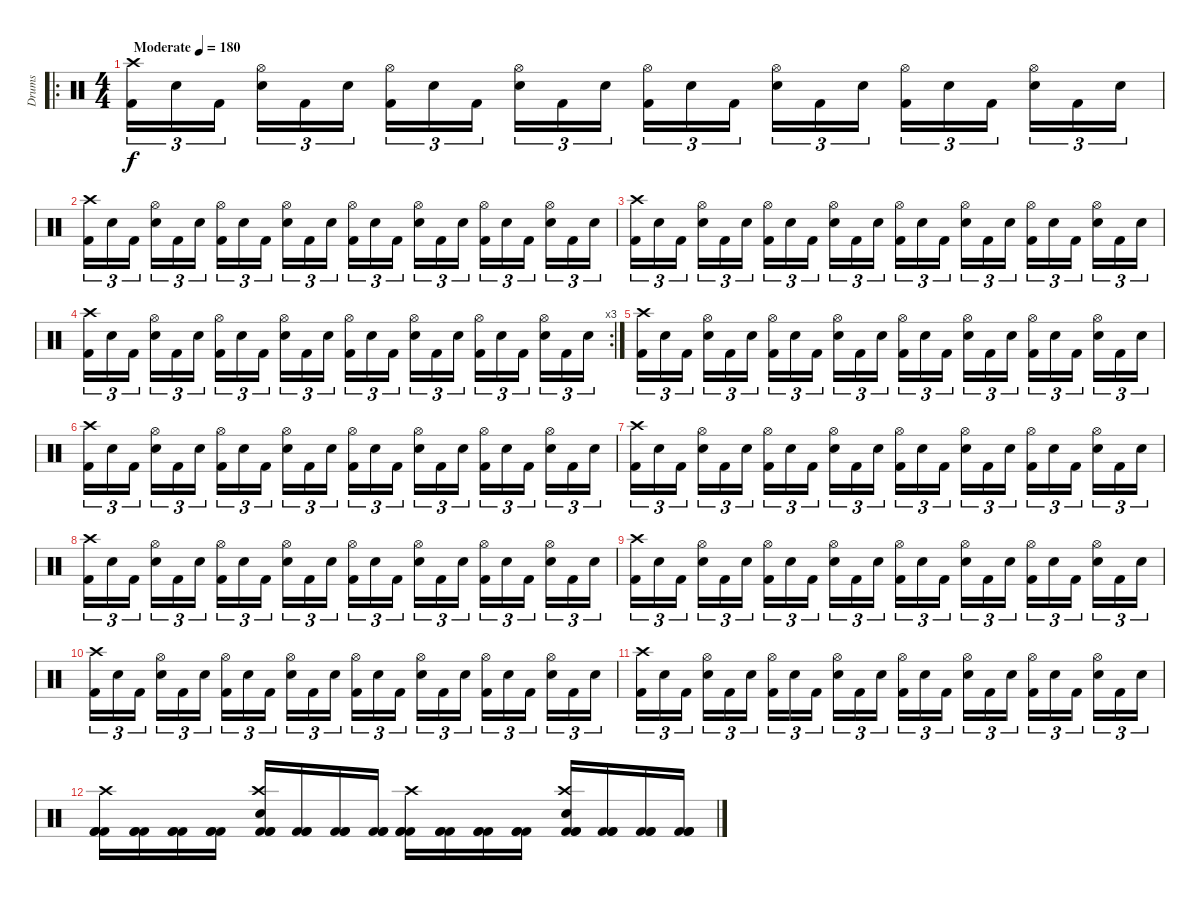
\track ("Drums" "Drums") {instrument percussion}
\staff {score}
\articulation defaults
\ro
\ts (4 4)
\tempo (180 "Moderate")
\clef neutral
\ks c
("Kick (hit) 2" "Crash high (hit)").16{tu (3 2) dy f} "Snare (hit) 2".16{tu (3 2)} "Kick (hit) 2".16{tu (3 2) beam splitsecondary} ("Snare (hit) 2" "Hi-Hat (open)").16{tu (3 2)} "Kick (hit) 2".16{tu (3 2)} "Snare (hit) 2".16{tu (3 2)} ("Kick (hit) 2" "Hi-Hat (open)").16{tu (3 2)} "Snare (hit) 2".16{tu (3 2)} "Kick (hit) 2".16{tu (3 2) beam splitsecondary} ("Snare (hit) 2" "Hi-Hat (open)").16{tu (3 2)} "Kick (hit) 2".16{tu (3 2)} "Snare (hit) 2".16{tu (3 2)} ("Kick (hit) 2" "Hi-Hat (open)").16{tu (3 2)} "Snare (hit) 2".16{tu (3 2)} "Kick (hit) 2".16{tu (3 2) beam splitsecondary} ("Snare (hit) 2" "Hi-Hat (open)").16{tu (3 2)} "Kick (hit) 2".16{tu (3 2)} "Snare (hit) 2".16{tu (3 2)} ("Kick (hit) 2" "Hi-Hat (open)").16{tu (3 2)} "Snare (hit) 2".16{tu (3 2)} "Kick (hit) 2".16{tu (3 2) beam splitsecondary} ("Snare (hit) 2" "Hi-Hat (open)").16{tu (3 2)} "Kick (hit) 2".16{tu (3 2)} "Snare (hit) 2".16{tu (3 2)} |
("Kick (hit) 2" "Crash high (hit)").16{tu (3 2)} "Snare (hit) 2".16{tu (3 2)} "Kick (hit) 2".16{tu (3 2) beam splitsecondary} ("Snare (hit) 2" "Hi-Hat (open)").16{tu (3 2)} "Kick (hit) 2".16{tu (3 2)} "Snare (hit) 2".16{tu (3 2)} ("Kick (hit) 2" "Hi-Hat (open)").16{tu (3 2)} "Snare (hit) 2".16{tu (3 2)} "Kick (hit) 2".16{tu (3 2) beam splitsecondary} ("Snare (hit) 2" "Hi-Hat (open)").16{tu (3 2)} "Kick (hit) 2".16{tu (3 2)} "Snare (hit) 2".16{tu (3 2)} ("Kick (hit) 2" "Hi-Hat (open)").16{tu (3 2)} "Snare (hit) 2".16{tu (3 2)} "Kick (hit) 2".16{tu (3 2) beam splitsecondary} ("Snare (hit) 2" "Hi-Hat (open)").16{tu (3 2)} "Kick (hit) 2".16{tu (3 2)} "Snare (hit) 2".16{tu (3 2)} ("Kick (hit) 2" "Hi-Hat (open)").16{tu (3 2)} "Snare (hit) 2".16{tu (3 2)} "Kick (hit) 2".16{tu (3 2) beam splitsecondary} ("Snare (hit) 2" "Hi-Hat (open)").16{tu (3 2)} "Kick (hit) 2".16{tu (3 2)} "Snare (hit) 2".16{tu (3 2)} |
("Kick (hit) 2" "Crash high (hit)").16{tu (3 2)} "Snare (hit) 2".16{tu (3 2)} "Kick (hit) 2".16{tu (3 2) beam splitsecondary} ("Snare (hit) 2" "Hi-Hat (open)").16{tu (3 2)} "Kick (hit) 2".16{tu (3 2)} "Snare (hit) 2".16{tu (3 2)} ("Kick (hit) 2" "Hi-Hat (open)").16{tu (3 2)} "Snare (hit) 2".16{tu (3 2)} "Kick (hit) 2".16{tu (3 2) beam splitsecondary} ("Snare (hit) 2" "Hi-Hat (open)").16{tu (3 2)} "Kick (hit) 2".16{tu (3 2)} "Snare (hit) 2".16{tu (3 2)} ("Kick (hit) 2" "Hi-Hat (open)").16{tu (3 2)} "Snare (hit) 2".16{tu (3 2)} "Kick (hit) 2".16{tu (3 2) beam splitsecondary} ("Snare (hit) 2" "Hi-Hat (open)").16{tu (3 2)} "Kick (hit) 2".16{tu (3 2)} "Snare (hit) 2".16{tu (3 2)} ("Kick (hit) 2" "Hi-Hat (open)").16{tu (3 2)} "Snare (hit) 2".16{tu (3 2)} "Kick (hit) 2".16{tu (3 2) beam splitsecondary} ("Snare (hit) 2" "Hi-Hat (open)").16{tu (3 2)} "Kick (hit) 2".16{tu (3 2)} "Snare (hit) 2".16{tu (3 2)} |
\rc 3
("Kick (hit) 2" "Crash high (hit)").16{tu (3 2)} "Snare (hit) 2".16{tu (3 2)} "Kick (hit) 2".16{tu (3 2) beam splitsecondary} ("Snare (hit) 2" "Hi-Hat (open)").16{tu (3 2)} "Kick (hit) 2".16{tu (3 2)} "Snare (hit) 2".16{tu (3 2)} ("Kick (hit) 2" "Hi-Hat (open)").16{tu (3 2)} "Snare (hit) 2".16{tu (3 2)} "Kick (hit) 2".16{tu (3 2) beam splitsecondary} ("Snare (hit) 2" "Hi-Hat (open)").16{tu (3 2)} "Kick (hit) 2".16{tu (3 2)} "Snare (hit) 2".16{tu (3 2)} ("Kick (hit) 2" "Hi-Hat (open)").16{tu (3 2)} "Snare (hit) 2".16{tu (3 2)} "Kick (hit) 2".16{tu (3 2) beam splitsecondary} ("Snare (hit) 2" "Hi-Hat (open)").16{tu (3 2)} "Kick (hit) 2".16{tu (3 2)} "Snare (hit) 2".16{tu (3 2)} ("Kick (hit) 2" "Hi-Hat (open)").16{tu (3 2)} "Snare (hit) 2".16{tu (3 2)} "Kick (hit) 2".16{tu (3 2) beam splitsecondary} ("Snare (hit) 2" "Hi-Hat (open)").16{tu (3 2)} "Kick (hit) 2".16{tu (3 2)} "Snare (hit) 2".16{tu (3 2)} |
("Kick (hit) 2" "Crash high (hit)").16{tu (3 2)} "Snare (hit) 2".16{tu (3 2)} "Kick (hit) 2".16{tu (3 2) beam splitsecondary} ("Snare (hit) 2" "Hi-Hat (open)").16{tu (3 2)} "Kick (hit) 2".16{tu (3 2)} "Snare (hit) 2".16{tu (3 2)} ("Kick (hit) 2" "Hi-Hat (open)").16{tu (3 2)} "Snare (hit) 2".16{tu (3 2)} "Kick (hit) 2".16{tu (3 2) beam splitsecondary} ("Snare (hit) 2" "Hi-Hat (open)").16{tu (3 2)} "Kick (hit) 2".16{tu (3 2)} "Snare (hit) 2".16{tu (3 2)} ("Kick (hit) 2" "Hi-Hat (open)").16{tu (3 2)} "Snare (hit) 2".16{tu (3 2)} "Kick (hit) 2".16{tu (3 2) beam splitsecondary} ("Snare (hit) 2" "Hi-Hat (open)").16{tu (3 2)} "Kick (hit) 2".16{tu (3 2)} "Snare (hit) 2".16{tu (3 2)} ("Kick (hit) 2" "Hi-Hat (open)").16{tu (3 2)} "Snare (hit) 2".16{tu (3 2)} "Kick (hit) 2".16{tu (3 2) beam splitsecondary} ("Snare (hit) 2" "Hi-Hat (open)").16{tu (3 2)} "Kick (hit) 2".16{tu (3 2)} "Snare (hit) 2".16{tu (3 2)} |
("Kick (hit) 2" "Crash high (hit)").16{tu (3 2)} "Snare (hit) 2".16{tu (3 2)} "Kick (hit) 2".16{tu (3 2) beam splitsecondary} ("Snare (hit) 2" "Hi-Hat (open)").16{tu (3 2)} "Kick (hit) 2".16{tu (3 2)} "Snare (hit) 2".16{tu (3 2)} ("Kick (hit) 2" "Hi-Hat (open)").16{tu (3 2)} "Snare (hit) 2".16{tu (3 2)} "Kick (hit) 2".16{tu (3 2) beam splitsecondary} ("Snare (hit) 2" "Hi-Hat (open)").16{tu (3 2)} "Kick (hit) 2".16{tu (3 2)} "Snare (hit) 2".16{tu (3 2)} ("Kick (hit) 2" "Hi-Hat (open)").16{tu (3 2)} "Snare (hit) 2".16{tu (3 2)} "Kick (hit) 2".16{tu (3 2) beam splitsecondary} ("Snare (hit) 2" "Hi-Hat (open)").16{tu (3 2)} "Kick (hit) 2".16{tu (3 2)} "Snare (hit) 2".16{tu (3 2)} ("Kick (hit) 2" "Hi-Hat (open)").16{tu (3 2)} "Snare (hit) 2".16{tu (3 2)} "Kick (hit) 2".16{tu (3 2) beam splitsecondary} ("Snare (hit) 2" "Hi-Hat (open)").16{tu (3 2)} "Kick (hit) 2".16{tu (3 2)} "Snare (hit) 2".16{tu (3 2)} |
("Kick (hit) 2" "Crash high (hit)").16{tu (3 2)} "Snare (hit) 2".16{tu (3 2)} "Kick (hit) 2".16{tu (3 2) beam splitsecondary} ("Snare (hit) 2" "Hi-Hat (open)").16{tu (3 2)} "Kick (hit) 2".16{tu (3 2)} "Snare (hit) 2".16{tu (3 2)} ("Kick (hit) 2" "Hi-Hat (open)").16{tu (3 2)} "Snare (hit) 2".16{tu (3 2)} "Kick (hit) 2".16{tu (3 2) beam splitsecondary} ("Snare (hit) 2" "Hi-Hat (open)").16{tu (3 2)} "Kick (hit) 2".16{tu (3 2)} "Snare (hit) 2".16{tu (3 2)} ("Kick (hit) 2" "Hi-Hat (open)").16{tu (3 2)} "Snare (hit) 2".16{tu (3 2)} "Kick (hit) 2".16{tu (3 2) beam splitsecondary} ("Snare (hit) 2" "Hi-Hat (open)").16{tu (3 2)} "Kick (hit) 2".16{tu (3 2)} "Snare (hit) 2".16{tu (3 2)} ("Kick (hit) 2" "Hi-Hat (open)").16{tu (3 2)} "Snare (hit) 2".16{tu (3 2)} "Kick (hit) 2".16{tu (3 2) beam splitsecondary} ("Snare (hit) 2" "Hi-Hat (open)").16{tu (3 2)} "Kick (hit) 2".16{tu (3 2)} "Snare (hit) 2".16{tu (3 2)} |
("Kick (hit) 2" "Crash high (hit)").16{tu (3 2)} "Snare (hit) 2".16{tu (3 2)} "Kick (hit) 2".16{tu (3 2) beam splitsecondary} ("Snare (hit) 2" "Hi-Hat (open)").16{tu (3 2)} "Kick (hit) 2".16{tu (3 2)} "Snare (hit) 2".16{tu (3 2)} ("Kick (hit) 2" "Hi-Hat (open)").16{tu (3 2)} "Snare (hit) 2".16{tu (3 2)} "Kick (hit) 2".16{tu (3 2) beam splitsecondary} ("Snare (hit) 2" "Hi-Hat (open)").16{tu (3 2)} "Kick (hit) 2".16{tu (3 2)} "Snare (hit) 2".16{tu (3 2)} ("Kick (hit) 2" "Hi-Hat (open)").16{tu (3 2)} "Snare (hit) 2".16{tu (3 2)} "Kick (hit) 2".16{tu (3 2) beam splitsecondary} ("Snare (hit) 2" "Hi-Hat (open)").16{tu (3 2)} "Kick (hit) 2".16{tu (3 2)} "Snare (hit) 2".16{tu (3 2)} ("Kick (hit) 2" "Hi-Hat (open)").16{tu (3 2)} "Snare (hit) 2".16{tu (3 2)} "Kick (hit) 2".16{tu (3 2) beam splitsecondary} ("Snare (hit) 2" "Hi-Hat (open)").16{tu (3 2)} "Kick (hit) 2".16{tu (3 2)} "Snare (hit) 2".16{tu (3 2)} |
("Kick (hit) 2" "Crash high (hit)").16{tu (3 2)} "Snare (hit) 2".16{tu (3 2)} "Kick (hit) 2".16{tu (3 2) beam splitsecondary} ("Snare (hit) 2" "Hi-Hat (open)").16{tu (3 2)} "Kick (hit) 2".16{tu (3 2)} "Snare (hit) 2".16{tu (3 2)} ("Kick (hit) 2" "Hi-Hat (open)").16{tu (3 2)} "Snare (hit) 2".16{tu (3 2)} "Kick (hit) 2".16{tu (3 2) beam splitsecondary} ("Snare (hit) 2" "Hi-Hat (open)").16{tu (3 2)} "Kick (hit) 2".16{tu (3 2)} "Snare (hit) 2".16{tu (3 2)} ("Kick (hit) 2" "Hi-Hat (open)").16{tu (3 2)} "Snare (hit) 2".16{tu (3 2)} "Kick (hit) 2".16{tu (3 2) beam splitsecondary} ("Snare (hit) 2" "Hi-Hat (open)").16{tu (3 2)} "Kick (hit) 2".16{tu (3 2)} "Snare (hit) 2".16{tu (3 2)} ("Kick (hit) 2" "Hi-Hat (open)").16{tu (3 2)} "Snare (hit) 2".16{tu (3 2)} "Kick (hit) 2".16{tu (3 2) beam splitsecondary} ("Snare (hit) 2" "Hi-Hat (open)").16{tu (3 2)} "Kick (hit) 2".16{tu (3 2)} "Snare (hit) 2".16{tu (3 2)} |
("Kick (hit) 2" "Crash high (hit)").16{tu (3 2)} "Snare (hit) 2".16{tu (3 2)} "Kick (hit) 2".16{tu (3 2) beam splitsecondary} ("Snare (hit) 2" "Hi-Hat (open)").16{tu (3 2)} "Kick (hit) 2".16{tu (3 2)} "Snare (hit) 2".16{tu (3 2)} ("Kick (hit) 2" "Hi-Hat (open)").16{tu (3 2)} "Snare (hit) 2".16{tu (3 2)} "Kick (hit) 2".16{tu (3 2) beam splitsecondary} ("Snare (hit) 2" "Hi-Hat (open)").16{tu (3 2)} "Kick (hit) 2".16{tu (3 2)} "Snare (hit) 2".16{tu (3 2)} ("Kick (hit) 2" "Hi-Hat (open)").16{tu (3 2)} "Snare (hit) 2".16{tu (3 2)} "Kick (hit) 2".16{tu (3 2) beam splitsecondary} ("Snare (hit) 2" "Hi-Hat (open)").16{tu (3 2)} "Kick (hit) 2".16{tu (3 2)} "Snare (hit) 2".16{tu (3 2)} ("Kick (hit) 2" "Hi-Hat (open)").16{tu (3 2)} "Snare (hit) 2".16{tu (3 2)} "Kick (hit) 2".16{tu (3 2) beam splitsecondary} ("Snare (hit) 2" "Hi-Hat (open)").16{tu (3 2)} "Kick (hit) 2".16{tu (3 2)} "Snare (hit) 2".16{tu (3 2)} |
("Kick (hit) 2" "Crash high (hit)").16{tu (3 2)} "Snare (hit) 2".16{tu (3 2)} "Kick (hit) 2".16{tu (3 2) beam splitsecondary} ("Snare (hit) 2" "Hi-Hat (open)").16{tu (3 2)} "Kick (hit) 2".16{tu (3 2)} "Snare (hit) 2".16{tu (3 2)} ("Kick (hit) 2" "Hi-Hat (open)").16{tu (3 2)} "Snare (hit) 2".16{tu (3 2)} "Kick (hit) 2".16{tu (3 2) beam splitsecondary} ("Snare (hit) 2" "Hi-Hat (open)").16{tu (3 2)} "Kick (hit) 2".16{tu (3 2)} "Snare (hit) 2".16{tu (3 2)} ("Kick (hit) 2" "Hi-Hat (open)").16{tu (3 2)} "Snare (hit) 2".16{tu (3 2)} "Kick (hit) 2".16{tu (3 2) beam splitsecondary} ("Snare (hit) 2" "Hi-Hat (open)").16{tu (3 2)} "Kick (hit) 2".16{tu (3 2)} "Snare (hit) 2".16{tu (3 2)} ("Kick (hit) 2" "Hi-Hat (open)").16{tu (3 2)} "Snare (hit) 2".16{tu (3 2)} "Kick (hit) 2".16{tu (3 2) beam splitsecondary} ("Snare (hit) 2" "Hi-Hat (open)").16{tu (3 2)} "Kick (hit) 2".16{tu (3 2)} "Snare (hit) 2".16{tu (3 2)} |
("Kick (hit) 2" "Kick (hit) 2" "Crash high (hit)" "Kick (hit) 2").16 ("Kick (hit) 2" "Kick (hit) 2" "Kick (hit) 2").16 ("Kick (hit) 2" "Kick (hit) 2" "Kick (hit) 2").16 ("Kick (hit) 2" "Kick (hit) 2" "Kick (hit) 2").16 ("Kick (hit) 2" "Snare (hit) 2" "Kick (hit) 2" "Crash high (hit)" "Kick (hit) 2").16 ("Kick (hit) 2" "Kick (hit) 2" "Kick (hit) 2").16 ("Kick (hit) 2" "Kick (hit) 2" "Kick (hit) 2").16 ("Kick (hit) 2" "Kick (hit) 2" "Kick (hit) 2").16 ("Kick (hit) 2" "Kick (hit) 2" "Crash high (hit)" "Kick (hit) 2").16 ("Kick (hit) 2" "Kick (hit) 2" "Kick (hit) 2").16 ("Kick (hit) 2" "Kick (hit) 2" "Kick (hit) 2").16 ("Kick (hit) 2" "Kick (hit) 2" "Kick (hit) 2").16 ("Kick (hit) 2" "Snare (hit) 2" "Kick (hit) 2" "Crash high (hit)" "Kick (hit) 2").16 ("Kick (hit) 2" "Kick (hit) 2" "Kick (hit) 2").16 ("Kick (hit) 2" "Kick (hit) 2" "Kick (hit) 2").16 ("Kick (hit) 2" "Kick (hit) 2" "Kick (hit) 2").16
